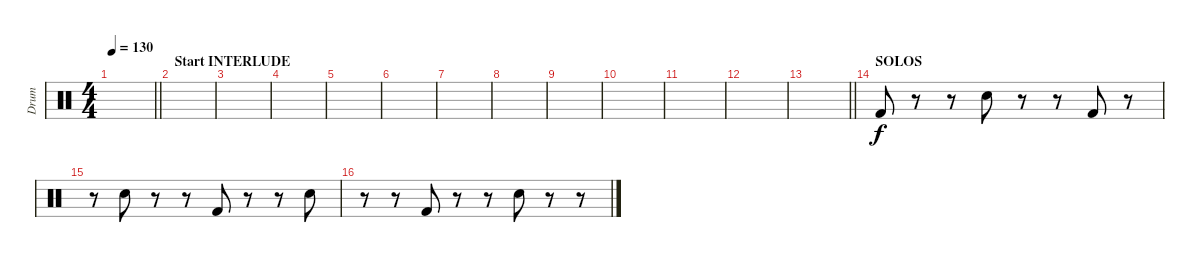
\track ("Drum" "Drum") {mute instrument percussion}
\staff {score}
\articulation defaults
\ts (4 4)
\tempo 130
\clef neutral
\barLineRight lightlight
\ks c
|
\section ("" "Start INTERLUDE")
|
|
|
|
|
|
|
|
|
|
|
\barLineRight lightlight
|
\section ("" "SOLOS")
"Kick (hit) 2".8 r.8 r.8 "Snare (hit) 2".8 r.8 r.8 "Kick (hit) 2".8 r.8 |
r.8 "Snare (hit) 2".8 r.8 r.8 "Kick (hit) 2".8 r.8 r.8 "Snare (hit) 2".8 |
r.8 r.8 "Kick (hit) 2".8 r.8 r.8 "Snare (hit) 2".8 r.8 r.8
